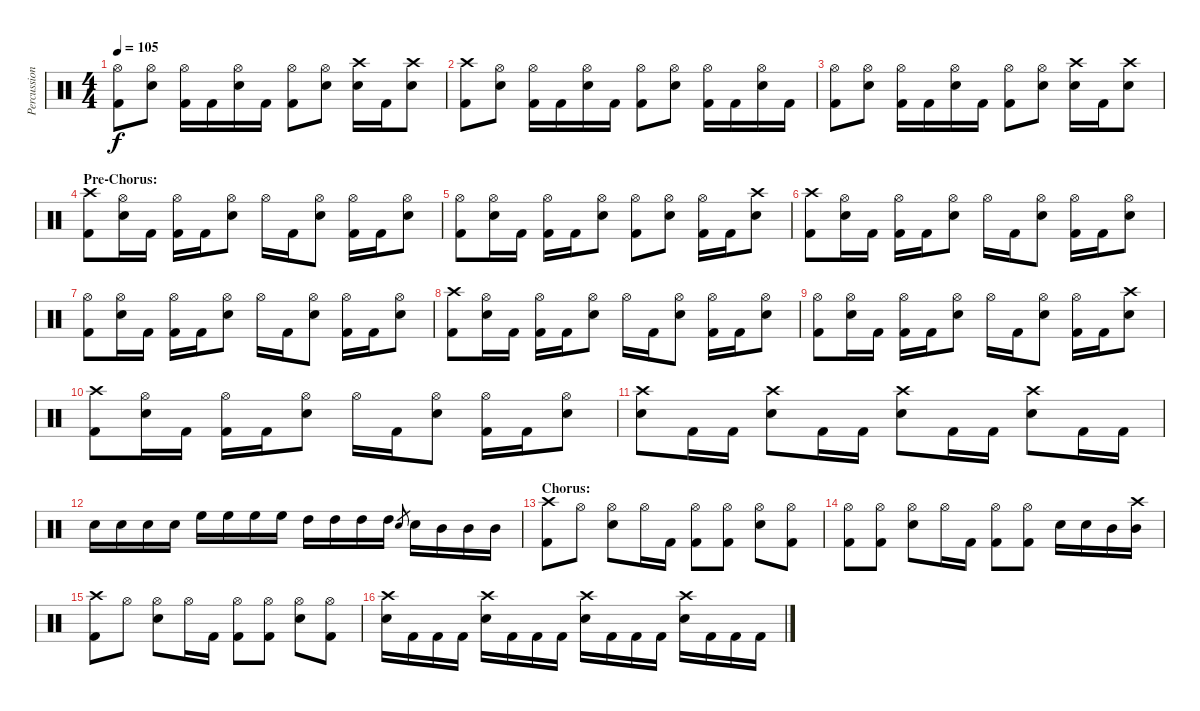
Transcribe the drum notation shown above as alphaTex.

\track ("Percussion" "Percussion") {instrument percussion}
\staff {score}
\articulation defaults
\ts (4 4)
\tempo 105
\clef neutral
\ks c
("Hi-Hat (open)" "Kick (hit) 2").8{dy f} ("Hi-Hat (open)" "Snare (hit) 2").8 ("Hi-Hat (open)" "Kick (hit) 2").16 "Kick (hit) 2".16 ("Hi-Hat (open)" "Snare (hit) 2").16 "Kick (hit) 2".16 ("Hi-Hat (open)" "Kick (hit) 2").8 ("Hi-Hat (open)" "Snare (hit) 2").8 ("Crash high (hit)" "Snare (hit) 2").16 "Kick (hit) 2".16 ("Crash high (hit)" "Snare (hit) 2").8 |
("Crash high (hit)" "Kick (hit) 2").8 ("Hi-Hat (open)" "Snare (hit) 2").8 ("Hi-Hat (open)" "Kick (hit) 2").16 "Kick (hit) 2".16 ("Hi-Hat (open)" "Snare (hit) 2").16 "Kick (hit) 2".16 ("Hi-Hat (open)" "Kick (hit) 2").8 ("Hi-Hat (open)" "Snare (hit) 2").8 ("Hi-Hat (open)" "Kick (hit) 2").16 "Kick (hit) 2".16 ("Hi-Hat (open)" "Snare (hit) 2").16 "Kick (hit) 2".16 |
("Hi-Hat (open)" "Kick (hit) 2").8 ("Hi-Hat (open)" "Snare (hit) 2").8 ("Hi-Hat (open)" "Kick (hit) 2").16 "Kick (hit) 2".16 ("Hi-Hat (open)" "Snare (hit) 2").16 "Kick (hit) 2".16 ("Hi-Hat (open)" "Kick (hit) 2").8 ("Hi-Hat (open)" "Snare (hit) 2").8 ("Crash high (hit)" "Snare (hit) 2").16 "Kick (hit) 2".16 ("Crash high (hit)" "Snare (hit) 2").8 |
\section ("" "Pre-Chorus:")
("Crash high (hit)" "Kick (hit) 2").8 ("Hi-Hat (open)" "Snare (hit) 2").16 "Kick (hit) 2".16 ("Hi-Hat (open)" "Kick (hit) 2").16 "Kick (hit) 2".16 ("Hi-Hat (open)" "Snare (hit) 2").8 "Hi-Hat (open)".16 "Kick (hit) 2".16 ("Hi-Hat (open)" "Snare (hit) 2").8 ("Hi-Hat (open)" "Kick (hit) 2").16 "Kick (hit) 2".16 ("Hi-Hat (open)" "Snare (hit) 2").8 |
("Hi-Hat (open)" "Kick (hit) 2").8 ("Hi-Hat (open)" "Snare (hit) 2").16 "Kick (hit) 2".16 ("Hi-Hat (open)" "Kick (hit) 2").16 "Kick (hit) 2".16 ("Hi-Hat (open)" "Snare (hit) 2").8 ("Hi-Hat (open)" "Kick (hit) 2").8 ("Hi-Hat (open)" "Snare (hit) 2").8 ("Hi-Hat (open)" "Kick (hit) 2").16 "Kick (hit) 2".16 ("Crash high (hit)" "Snare (hit) 2").8 |
("Crash high (hit)" "Kick (hit) 2").8 ("Hi-Hat (open)" "Snare (hit) 2").16 "Kick (hit) 2".16 ("Hi-Hat (open)" "Kick (hit) 2").16 "Kick (hit) 2".16 ("Hi-Hat (open)" "Snare (hit) 2").8 "Hi-Hat (open)".16 "Kick (hit) 2".16 ("Hi-Hat (open)" "Snare (hit) 2").8 ("Hi-Hat (open)" "Kick (hit) 2").16 "Kick (hit) 2".16 ("Hi-Hat (open)" "Snare (hit) 2").8 |
("Hi-Hat (open)" "Kick (hit) 2").8 ("Hi-Hat (open)" "Snare (hit) 2").16 "Kick (hit) 2".16 ("Hi-Hat (open)" "Kick (hit) 2").16 "Kick (hit) 2".16 ("Hi-Hat (open)" "Snare (hit) 2").8 "Hi-Hat (open)".16 "Kick (hit) 2".16 ("Hi-Hat (open)" "Snare (hit) 2").8 ("Hi-Hat (open)" "Kick (hit) 2").16 "Kick (hit) 2".16 ("Hi-Hat (open)" "Snare (hit) 2").8 |
("Crash high (hit)" "Kick (hit) 2").8 ("Hi-Hat (open)" "Snare (hit) 2").16 "Kick (hit) 2".16 ("Hi-Hat (open)" "Kick (hit) 2").16 "Kick (hit) 2".16 ("Hi-Hat (open)" "Snare (hit) 2").8 "Hi-Hat (open)".16 "Kick (hit) 2".16 ("Hi-Hat (open)" "Snare (hit) 2").8 ("Hi-Hat (open)" "Kick (hit) 2").16 "Kick (hit) 2".16 ("Hi-Hat (open)" "Snare (hit) 2").8 |
("Hi-Hat (open)" "Kick (hit) 2").8 ("Hi-Hat (open)" "Snare (hit) 2").16 "Kick (hit) 2".16 ("Hi-Hat (open)" "Kick (hit) 2").16 "Kick (hit) 2".16 ("Hi-Hat (open)" "Snare (hit) 2").8 "Hi-Hat (open)".16 "Kick (hit) 2".16 ("Hi-Hat (open)" "Snare (hit) 2").8 ("Hi-Hat (open)" "Kick (hit) 2").16 "Kick (hit) 2".16 ("Crash high (hit)" "Snare (hit) 2").8 |
("Crash high (hit)" "Kick (hit) 2").8 ("Hi-Hat (open)" "Snare (hit) 2").16 "Kick (hit) 2".16 ("Hi-Hat (open)" "Kick (hit) 2").16 "Kick (hit) 2".16 ("Hi-Hat (open)" "Snare (hit) 2").8 "Hi-Hat (open)".16 "Kick (hit) 2".16 ("Hi-Hat (open)" "Snare (hit) 2").8 ("Hi-Hat (open)" "Kick (hit) 2").16 "Kick (hit) 2".16 ("Hi-Hat (open)" "Snare (hit) 2").8 |
("Crash high (hit)" "Snare (hit) 2").8 "Kick (hit) 2".16 "Kick (hit) 2".16 ("Crash high (hit)" "Snare (hit) 2").8 "Kick (hit) 2".16 "Kick (hit) 2".16 ("Crash high (hit)" "Snare (hit) 2").8 "Kick (hit) 2".16 "Kick (hit) 2".16 ("Crash high (hit)" "Snare (hit) 2").8 "Kick (hit) 2".16 "Kick (hit) 2".16 |
"Snare (hit) 2".16 "Snare (hit) 2".16 "Snare (hit) 2".16 "Snare (hit) 2".16 "High Floor Tom (hit)".16 "High Floor Tom (hit)".16 "High Floor Tom (hit)".16 "High Floor Tom (hit)".16 "High Tom (hit)".16 "High Tom (hit)".16 "High Tom (hit)".16 "High Tom (hit)".16 "Snare (hit) 2".8{gr} "Snare (hit) 2".16 "Mid Tom (hit)".16 "Mid Tom (hit)".16 "Mid Tom (hit)".16 |
\section ("" "Chorus:")
("Crash high (hit)" "Kick (hit) 2").8 "Hi-Hat (open)".8 ("Hi-Hat (open)" "Snare (hit) 2").8 "Hi-Hat (open)".16 "Kick (hit) 2".16 ("Hi-Hat (open)" "Kick (hit) 2").8 ("Hi-Hat (open)" "Kick (hit) 2").8 ("Hi-Hat (open)" "Snare (hit) 2").8 ("Hi-Hat (open)" "Kick (hit) 2").8 |
("Hi-Hat (open)" "Kick (hit) 2").8 ("Hi-Hat (open)" "Kick (hit) 2").8 ("Hi-Hat (open)" "Snare (hit) 2").8 "Hi-Hat (open)".16 "Kick (hit) 2".16 ("Hi-Hat (open)" "Kick (hit) 2").8 ("Hi-Hat (open)" "Kick (hit) 2").8 "Snare (hit) 2".16 "Snare (hit) 2".16 "Mid Tom (hit)".16 ("Crash high (hit)" "Mid Tom (hit)").16 |
("Crash high (hit)" "Kick (hit) 2").8 "Hi-Hat (open)".8 ("Hi-Hat (open)" "Snare (hit) 2").8 "Hi-Hat (open)".16 "Kick (hit) 2".16 ("Hi-Hat (open)" "Kick (hit) 2").8 ("Hi-Hat (open)" "Kick (hit) 2").8 ("Hi-Hat (open)" "Snare (hit) 2").8 ("Hi-Hat (open)" "Kick (hit) 2").8 |
("Crash high (hit)" "Snare (hit) 2").16 "Kick (hit) 2".16 "Kick (hit) 2".16 "Kick (hit) 2".16 ("Crash high (hit)" "Snare (hit) 2").16 "Kick (hit) 2".16 "Kick (hit) 2".16 "Kick (hit) 2".16 ("Crash high (hit)" "Snare (hit) 2").16 "Kick (hit) 2".16 "Kick (hit) 2".16 "Kick (hit) 2".16 ("Crash high (hit)" "Snare (hit) 2").16 "Kick (hit) 2".16 "Kick (hit) 2".16 "Kick (hit) 2".16
